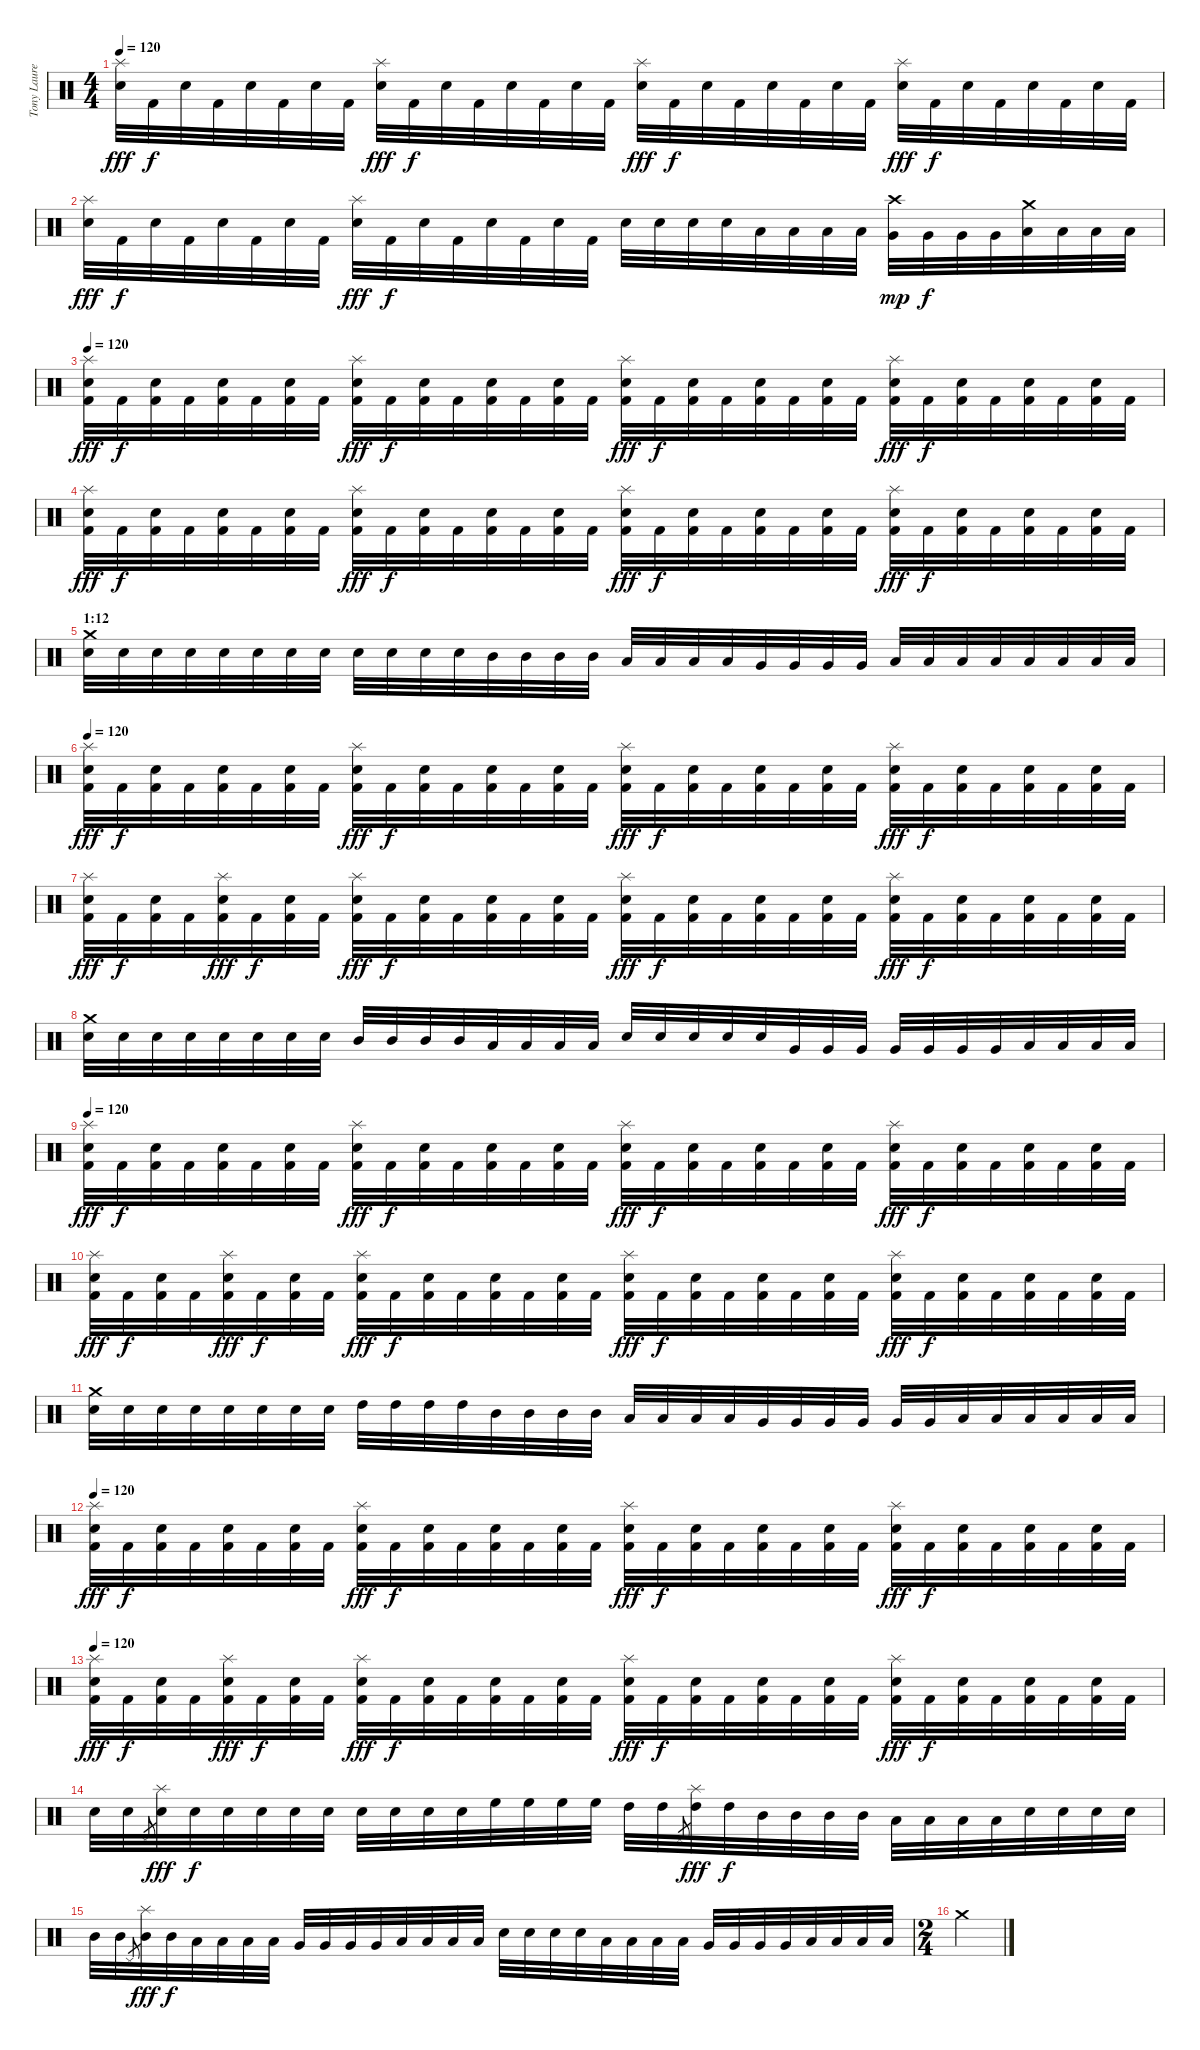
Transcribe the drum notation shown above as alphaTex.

\track ("Tony Laureano" "Tony Laure") {instrument percussion}
\staff {score}
\articulation defaults
\ts (4 4)
\tempo 120
\clef neutral
\ks c
("Splash (hit)" "Electric Snare (hit)").32{dy fff} "Kick (hit) 2".32{dy f} "Electric Snare (hit)".32 "Kick (hit) 2".32 "Electric Snare (hit)".32 "Kick (hit) 2".32 "Electric Snare (hit)".32 "Kick (hit) 2".32 ("Splash (hit)" "Electric Snare (hit)").32{dy fff} "Kick (hit) 2".32{dy f} "Electric Snare (hit)".32 "Kick (hit) 2".32 "Electric Snare (hit)".32 "Kick (hit) 2".32 "Electric Snare (hit)".32 "Kick (hit) 2".32 ("Splash (hit)" "Electric Snare (hit)").32{dy fff} "Kick (hit) 2".32{dy f} "Electric Snare (hit)".32 "Kick (hit) 2".32 "Electric Snare (hit)".32 "Kick (hit) 2".32 "Electric Snare (hit)".32 "Kick (hit) 2".32 ("Splash (hit)" "Electric Snare (hit)").32{dy fff} "Kick (hit) 2".32{dy f} "Electric Snare (hit)".32 "Kick (hit) 2".32 "Electric Snare (hit)".32 "Kick (hit) 2".32 "Electric Snare (hit)".32 "Kick (hit) 2".32 |
("Splash (hit)" "Electric Snare (hit)").32{dy fff} "Kick (hit) 2".32{dy f} "Electric Snare (hit)".32 "Kick (hit) 2".32 "Electric Snare (hit)".32 "Kick (hit) 2".32 "Electric Snare (hit)".32 "Kick (hit) 2".32 ("Splash (hit)" "Electric Snare (hit)").32{dy fff} "Kick (hit) 2".32{dy f} "Electric Snare (hit)".32 "Kick (hit) 2".32 "Electric Snare (hit)".32 "Kick (hit) 2".32 "Electric Snare (hit)".32 "Kick (hit) 2".32 "Electric Snare (hit)".32 "Electric Snare (hit)".32 "Electric Snare (hit)".32 "Electric Snare (hit)".32 "Low Tom (hit)".32 "Low Tom (hit)".32 "Low Tom (hit)".32 "Low Tom (hit)".32 ("Crash high (hit)" "Very Low Tom (hit)").32{dy mp} "Very Low Tom (hit)".32{dy f} "Very Low Tom (hit)".32 "Very Low Tom (hit)".32 ("Crash medium (hit)" "Low Floor Tom (hit)").32 "Low Floor Tom (hit)".32 "Low Floor Tom (hit)".32 "Low Floor Tom (hit)".32 |
\tempo 120
("Splash (hit)" "Electric Snare (hit)" "Kick (hit) 2").32{dy fff} "Kick (hit) 2".32{dy f} ("Electric Snare (hit)" "Kick (hit) 2").32 "Kick (hit) 2".32 ("Electric Snare (hit)" "Kick (hit) 2").32 "Kick (hit) 2".32 ("Electric Snare (hit)" "Kick (hit) 2").32 "Kick (hit) 2".32 ("Splash (hit)" "Electric Snare (hit)" "Kick (hit) 2").32{dy fff} "Kick (hit) 2".32{dy f} ("Electric Snare (hit)" "Kick (hit) 2").32 "Kick (hit) 2".32 ("Electric Snare (hit)" "Kick (hit) 2").32 "Kick (hit) 2".32 ("Electric Snare (hit)" "Kick (hit) 2").32 "Kick (hit) 2".32 ("Splash (hit)" "Electric Snare (hit)" "Kick (hit) 2").32{dy fff} "Kick (hit) 2".32{dy f} ("Electric Snare (hit)" "Kick (hit) 2").32 "Kick (hit) 2".32 ("Electric Snare (hit)" "Kick (hit) 2").32 "Kick (hit) 2".32 ("Electric Snare (hit)" "Kick (hit) 2").32 "Kick (hit) 2".32 ("Splash (hit)" "Electric Snare (hit)" "Kick (hit) 2").32{dy fff} "Kick (hit) 2".32{dy f} ("Electric Snare (hit)" "Kick (hit) 2").32 "Kick (hit) 2".32 ("Electric Snare (hit)" "Kick (hit) 2").32 "Kick (hit) 2".32 ("Electric Snare (hit)" "Kick (hit) 2").32 "Kick (hit) 2".32 |
("Splash (hit)" "Electric Snare (hit)" "Kick (hit) 2").32{dy fff} "Kick (hit) 2".32{dy f} ("Electric Snare (hit)" "Kick (hit) 2").32 "Kick (hit) 2".32 ("Electric Snare (hit)" "Kick (hit) 2").32 "Kick (hit) 2".32 ("Electric Snare (hit)" "Kick (hit) 2").32 "Kick (hit) 2".32 ("Splash (hit)" "Electric Snare (hit)" "Kick (hit) 2").32{dy fff} "Kick (hit) 2".32{dy f} ("Electric Snare (hit)" "Kick (hit) 2").32 "Kick (hit) 2".32 ("Electric Snare (hit)" "Kick (hit) 2").32 "Kick (hit) 2".32 ("Electric Snare (hit)" "Kick (hit) 2").32 "Kick (hit) 2".32 ("Splash (hit)" "Electric Snare (hit)" "Kick (hit) 2").32{dy fff} "Kick (hit) 2".32{dy f} ("Electric Snare (hit)" "Kick (hit) 2").32 "Kick (hit) 2".32 ("Electric Snare (hit)" "Kick (hit) 2").32 "Kick (hit) 2".32 ("Electric Snare (hit)" "Kick (hit) 2").32 "Kick (hit) 2".32 ("Splash (hit)" "Electric Snare (hit)" "Kick (hit) 2").32{dy fff} "Kick (hit) 2".32{dy f} ("Electric Snare (hit)" "Kick (hit) 2").32 "Kick (hit) 2".32 ("Electric Snare (hit)" "Kick (hit) 2").32 "Kick (hit) 2".32 ("Electric Snare (hit)" "Kick (hit) 2").32 "Kick (hit) 2".32 |
\section ("" "1:12")
("Crash medium (hit)" "Electric Snare (hit)").32 "Electric Snare (hit)".32 "Electric Snare (hit)".32 "Electric Snare (hit)".32 "Electric Snare (hit)".32 "Electric Snare (hit)".32 "Electric Snare (hit)".32 "Electric Snare (hit)".32 "Electric Snare (hit)".32 "Electric Snare (hit)".32 "Electric Snare (hit)".32 "Electric Snare (hit)".32 "Mid Tom (hit)".32 "Mid Tom (hit)".32 "Mid Tom (hit)".32 "Mid Tom (hit)".32 "Low Tom (hit)".32 "Low Tom (hit)".32 "Low Tom (hit)".32 "Low Tom (hit)".32 "Very Low Tom (hit)".32 "Very Low Tom (hit)".32 "Very Low Tom (hit)".32 "Very Low Tom (hit)".32 "Low Floor Tom (hit)".32 "Low Floor Tom (hit)".32 "Low Floor Tom (hit)".32 "Low Floor Tom (hit)".32 "Low Floor Tom (hit)".32 "Low Floor Tom (hit)".32 "Low Floor Tom (hit)".32 "Low Floor Tom (hit)".32 |
\tempo 120
("Splash (hit)" "Electric Snare (hit)" "Kick (hit) 2").32{dy fff} "Kick (hit) 2".32{dy f} ("Electric Snare (hit)" "Kick (hit) 2").32 "Kick (hit) 2".32 ("Electric Snare (hit)" "Kick (hit) 2").32 "Kick (hit) 2".32 ("Electric Snare (hit)" "Kick (hit) 2").32 "Kick (hit) 2".32 ("Splash (hit)" "Electric Snare (hit)" "Kick (hit) 2").32{dy fff} "Kick (hit) 2".32{dy f} ("Electric Snare (hit)" "Kick (hit) 2").32 "Kick (hit) 2".32 ("Electric Snare (hit)" "Kick (hit) 2").32 "Kick (hit) 2".32 ("Electric Snare (hit)" "Kick (hit) 2").32 "Kick (hit) 2".32 ("Splash (hit)" "Electric Snare (hit)" "Kick (hit) 2").32{dy fff} "Kick (hit) 2".32{dy f} ("Electric Snare (hit)" "Kick (hit) 2").32 "Kick (hit) 2".32 ("Electric Snare (hit)" "Kick (hit) 2").32 "Kick (hit) 2".32 ("Electric Snare (hit)" "Kick (hit) 2").32 "Kick (hit) 2".32 ("Splash (hit)" "Electric Snare (hit)" "Kick (hit) 2").32{dy fff} "Kick (hit) 2".32{dy f} ("Electric Snare (hit)" "Kick (hit) 2").32 "Kick (hit) 2".32 ("Electric Snare (hit)" "Kick (hit) 2").32 "Kick (hit) 2".32 ("Electric Snare (hit)" "Kick (hit) 2").32 "Kick (hit) 2".32 |
("Splash (hit)" "Electric Snare (hit)" "Kick (hit) 2").32{dy fff} "Kick (hit) 2".32{dy f} ("Electric Snare (hit)" "Kick (hit) 2").32 "Kick (hit) 2".32 ("Splash (hit)" "Electric Snare (hit)" "Kick (hit) 2").32{dy fff} "Kick (hit) 2".32{dy f} ("Electric Snare (hit)" "Kick (hit) 2").32 "Kick (hit) 2".32 ("Splash (hit)" "Electric Snare (hit)" "Kick (hit) 2").32{dy fff} "Kick (hit) 2".32{dy f} ("Electric Snare (hit)" "Kick (hit) 2").32 "Kick (hit) 2".32 ("Electric Snare (hit)" "Kick (hit) 2").32 "Kick (hit) 2".32 ("Electric Snare (hit)" "Kick (hit) 2").32 "Kick (hit) 2".32 ("Splash (hit)" "Electric Snare (hit)" "Kick (hit) 2").32{dy fff} "Kick (hit) 2".32{dy f} ("Electric Snare (hit)" "Kick (hit) 2").32 "Kick (hit) 2".32 ("Electric Snare (hit)" "Kick (hit) 2").32 "Kick (hit) 2".32 ("Electric Snare (hit)" "Kick (hit) 2").32 "Kick (hit) 2".32 ("Splash (hit)" "Electric Snare (hit)" "Kick (hit) 2").32{dy fff} "Kick (hit) 2".32{dy f} ("Electric Snare (hit)" "Kick (hit) 2").32 "Kick (hit) 2".32 ("Electric Snare (hit)" "Kick (hit) 2").32 "Kick (hit) 2".32 ("Electric Snare (hit)" "Kick (hit) 2").32 "Kick (hit) 2".32 |
("Crash medium (hit)" "Electric Snare (hit)").32 "Electric Snare (hit)".32 "Electric Snare (hit)".32 "Electric Snare (hit)".32 "Electric Snare (hit)".32 "Electric Snare (hit)".32 "Electric Snare (hit)".32 "Electric Snare (hit)".32 "Mid Tom (hit)".32 "Mid Tom (hit)".32 "Mid Tom (hit)".32 "Mid Tom (hit)".32 "Low Tom (hit)".32 "Low Tom (hit)".32 "Low Tom (hit)".32 "Low Tom (hit)".32 "Electric Snare (hit)".32 "Electric Snare (hit)".32 "Electric Snare (hit)".32 "Electric Snare (hit)".32 "Electric Snare (hit)".32 "Very Low Tom (hit)".32 "Very Low Tom (hit)".32 "Very Low Tom (hit)".32 "Very Low Tom (hit)".32 "Very Low Tom (hit)".32 "Very Low Tom (hit)".32 "Very Low Tom (hit)".32 "Low Floor Tom (hit)".32 "Low Floor Tom (hit)".32 "Low Floor Tom (hit)".32 "Low Floor Tom (hit)".32 |
\tempo 120
("Splash (hit)" "Electric Snare (hit)" "Kick (hit) 2").32{dy fff} "Kick (hit) 2".32{dy f} ("Electric Snare (hit)" "Kick (hit) 2").32 "Kick (hit) 2".32 ("Electric Snare (hit)" "Kick (hit) 2").32 "Kick (hit) 2".32 ("Electric Snare (hit)" "Kick (hit) 2").32 "Kick (hit) 2".32 ("Splash (hit)" "Electric Snare (hit)" "Kick (hit) 2").32{dy fff} "Kick (hit) 2".32{dy f} ("Electric Snare (hit)" "Kick (hit) 2").32 "Kick (hit) 2".32 ("Electric Snare (hit)" "Kick (hit) 2").32 "Kick (hit) 2".32 ("Electric Snare (hit)" "Kick (hit) 2").32 "Kick (hit) 2".32 ("Splash (hit)" "Electric Snare (hit)" "Kick (hit) 2").32{dy fff} "Kick (hit) 2".32{dy f} ("Electric Snare (hit)" "Kick (hit) 2").32 "Kick (hit) 2".32 ("Electric Snare (hit)" "Kick (hit) 2").32 "Kick (hit) 2".32 ("Electric Snare (hit)" "Kick (hit) 2").32 "Kick (hit) 2".32 ("Splash (hit)" "Electric Snare (hit)" "Kick (hit) 2").32{dy fff} "Kick (hit) 2".32{dy f} ("Electric Snare (hit)" "Kick (hit) 2").32 "Kick (hit) 2".32 ("Electric Snare (hit)" "Kick (hit) 2").32 "Kick (hit) 2".32 ("Electric Snare (hit)" "Kick (hit) 2").32 "Kick (hit) 2".32 |
("Splash (hit)" "Electric Snare (hit)" "Kick (hit) 2").32{dy fff} "Kick (hit) 2".32{dy f} ("Electric Snare (hit)" "Kick (hit) 2").32 "Kick (hit) 2".32 ("Splash (hit)" "Electric Snare (hit)" "Kick (hit) 2").32{dy fff} "Kick (hit) 2".32{dy f} ("Electric Snare (hit)" "Kick (hit) 2").32 "Kick (hit) 2".32 ("Splash (hit)" "Electric Snare (hit)" "Kick (hit) 2").32{dy fff} "Kick (hit) 2".32{dy f} ("Electric Snare (hit)" "Kick (hit) 2").32 "Kick (hit) 2".32 ("Electric Snare (hit)" "Kick (hit) 2").32 "Kick (hit) 2".32 ("Electric Snare (hit)" "Kick (hit) 2").32 "Kick (hit) 2".32 ("Splash (hit)" "Electric Snare (hit)" "Kick (hit) 2").32{dy fff} "Kick (hit) 2".32{dy f} ("Electric Snare (hit)" "Kick (hit) 2").32 "Kick (hit) 2".32 ("Electric Snare (hit)" "Kick (hit) 2").32 "Kick (hit) 2".32 ("Electric Snare (hit)" "Kick (hit) 2").32 "Kick (hit) 2".32 ("Splash (hit)" "Electric Snare (hit)" "Kick (hit) 2").32{dy fff} "Kick (hit) 2".32{dy f} ("Electric Snare (hit)" "Kick (hit) 2").32 "Kick (hit) 2".32 ("Electric Snare (hit)" "Kick (hit) 2").32 "Kick (hit) 2".32 ("Electric Snare (hit)" "Kick (hit) 2").32 "Kick (hit) 2".32 |
("Crash medium (hit)" "Electric Snare (hit)").32 "Electric Snare (hit)".32 "Electric Snare (hit)".32 "Electric Snare (hit)".32 "Electric Snare (hit)".32 "Electric Snare (hit)".32 "Electric Snare (hit)".32 "Electric Snare (hit)".32 "High Tom (hit)".32 "High Tom (hit)".32 "High Tom (hit)".32 "High Tom (hit)".32 "Mid Tom (hit)".32 "Mid Tom (hit)".32 "Mid Tom (hit)".32 "Mid Tom (hit)".32 "Low Tom (hit)".32 "Low Tom (hit)".32 "Low Tom (hit)".32 "Low Tom (hit)".32 "Very Low Tom (hit)".32 "Very Low Tom (hit)".32 "Very Low Tom (hit)".32 "Very Low Tom (hit)".32 "Very Low Tom (hit)".32 "Very Low Tom (hit)".32 "Low Floor Tom (hit)".32 "Low Floor Tom (hit)".32 "Low Floor Tom (hit)".32 "Low Floor Tom (hit)".32 "Low Floor Tom (hit)".32 "Low Floor Tom (hit)".32 |
\tempo 120
("Splash (hit)" "Electric Snare (hit)" "Kick (hit) 2").32{dy fff} "Kick (hit) 2".32{dy f} ("Electric Snare (hit)" "Kick (hit) 2").32 "Kick (hit) 2".32 ("Electric Snare (hit)" "Kick (hit) 2").32 "Kick (hit) 2".32 ("Electric Snare (hit)" "Kick (hit) 2").32 "Kick (hit) 2".32 ("Splash (hit)" "Electric Snare (hit)" "Kick (hit) 2").32{dy fff} "Kick (hit) 2".32{dy f} ("Electric Snare (hit)" "Kick (hit) 2").32 "Kick (hit) 2".32 ("Electric Snare (hit)" "Kick (hit) 2").32 "Kick (hit) 2".32 ("Electric Snare (hit)" "Kick (hit) 2").32 "Kick (hit) 2".32 ("Splash (hit)" "Electric Snare (hit)" "Kick (hit) 2").32{dy fff} "Kick (hit) 2".32{dy f} ("Electric Snare (hit)" "Kick (hit) 2").32 "Kick (hit) 2".32 ("Electric Snare (hit)" "Kick (hit) 2").32 "Kick (hit) 2".32 ("Electric Snare (hit)" "Kick (hit) 2").32 "Kick (hit) 2".32 ("Splash (hit)" "Electric Snare (hit)" "Kick (hit) 2").32{dy fff} "Kick (hit) 2".32{dy f} ("Electric Snare (hit)" "Kick (hit) 2").32 "Kick (hit) 2".32 ("Electric Snare (hit)" "Kick (hit) 2").32 "Kick (hit) 2".32 ("Electric Snare (hit)" "Kick (hit) 2").32 "Kick (hit) 2".32 |
\tempo 120
("Splash (hit)" "Electric Snare (hit)" "Kick (hit) 2").32{dy fff} "Kick (hit) 2".32{dy f} ("Electric Snare (hit)" "Kick (hit) 2").32 "Kick (hit) 2".32 ("Splash (hit)" "Electric Snare (hit)" "Kick (hit) 2").32{dy fff} "Kick (hit) 2".32{dy f} ("Electric Snare (hit)" "Kick (hit) 2").32 "Kick (hit) 2".32 ("Splash (hit)" "Electric Snare (hit)" "Kick (hit) 2").32{dy fff} "Kick (hit) 2".32{dy f} ("Electric Snare (hit)" "Kick (hit) 2").32 "Kick (hit) 2".32 ("Electric Snare (hit)" "Kick (hit) 2").32 "Kick (hit) 2".32 ("Electric Snare (hit)" "Kick (hit) 2").32 "Kick (hit) 2".32 ("Splash (hit)" "Electric Snare (hit)" "Kick (hit) 2").32{dy fff} "Kick (hit) 2".32{dy f} ("Electric Snare (hit)" "Kick (hit) 2").32 "Kick (hit) 2".32 ("Electric Snare (hit)" "Kick (hit) 2").32 "Kick (hit) 2".32 ("Electric Snare (hit)" "Kick (hit) 2").32 "Kick (hit) 2".32 ("Splash (hit)" "Electric Snare (hit)" "Kick (hit) 2").32{dy fff} "Kick (hit) 2".32{dy f} ("Electric Snare (hit)" "Kick (hit) 2").32 "Kick (hit) 2".32 ("Electric Snare (hit)" "Kick (hit) 2").32 "Kick (hit) 2".32 ("Electric Snare (hit)" "Kick (hit) 2").32 "Kick (hit) 2".32 |
"Electric Snare (hit)".32 "Electric Snare (hit)".32 "Pedal Hi-Hat (hit)".8{gr} ("Splash (hit)" "Electric Snare (hit)").32{dy fff} "Electric Snare (hit)".32{dy f} "Electric Snare (hit)".32 "Electric Snare (hit)".32 "Electric Snare (hit)".32 "Electric Snare (hit)".32 "Electric Snare (hit)".32 "Electric Snare (hit)".32 "Electric Snare (hit)".32 "Electric Snare (hit)".32 "High Floor Tom (hit)".32 "High Floor Tom (hit)".32 "High Floor Tom (hit)".32 "High Floor Tom (hit)".32 "High Tom (hit)".32 "High Tom (hit)".32 "Pedal Hi-Hat (hit)".8{gr} ("Splash (hit)" "High Tom (hit)").32{dy fff} "High Tom (hit)".32{dy f} "Mid Tom (hit)".32 "Mid Tom (hit)".32 "Mid Tom (hit)".32 "Mid Tom (hit)".32 "Low Tom (hit)".32 "Low Tom (hit)".32 "Low Tom (hit)".32 "Low Tom (hit)".32 "Electric Snare (hit)".32 "Electric Snare (hit)".32 "Electric Snare (hit)".32 "Electric Snare (hit)".32 |
"Mid Tom (hit)".32 "Mid Tom (hit)".32 "Pedal Hi-Hat (hit)".8{gr} ("Splash (hit)" "Mid Tom (hit)").32{dy fff} "Mid Tom (hit)".32{dy f} "Low Tom (hit)".32 "Low Tom (hit)".32 "Low Tom (hit)".32 "Low Tom (hit)".32 "Very Low Tom (hit)".32 "Very Low Tom (hit)".32 "Very Low Tom (hit)".32 "Very Low Tom (hit)".32 "Low Floor Tom (hit)".32 "Low Floor Tom (hit)".32 "Low Floor Tom (hit)".32 "Low Floor Tom (hit)".32 "Electric Snare (hit)".32 "Electric Snare (hit)".32 "Electric Snare (hit)".32 "Electric Snare (hit)".32 "Low Tom (hit)".32 "Low Tom (hit)".32 "Low Tom (hit)".32 "Low Tom (hit)".32 "Very Low Tom (hit)".32 "Very Low Tom (hit)".32 "Very Low Tom (hit)".32 "Very Low Tom (hit)".32 "Low Floor Tom (hit)".32 "Low Floor Tom (hit)".32 "Low Floor Tom (hit)".32 "Low Floor Tom (hit)".32 |
\ts (2 4)
"Crash medium (hit)".2
